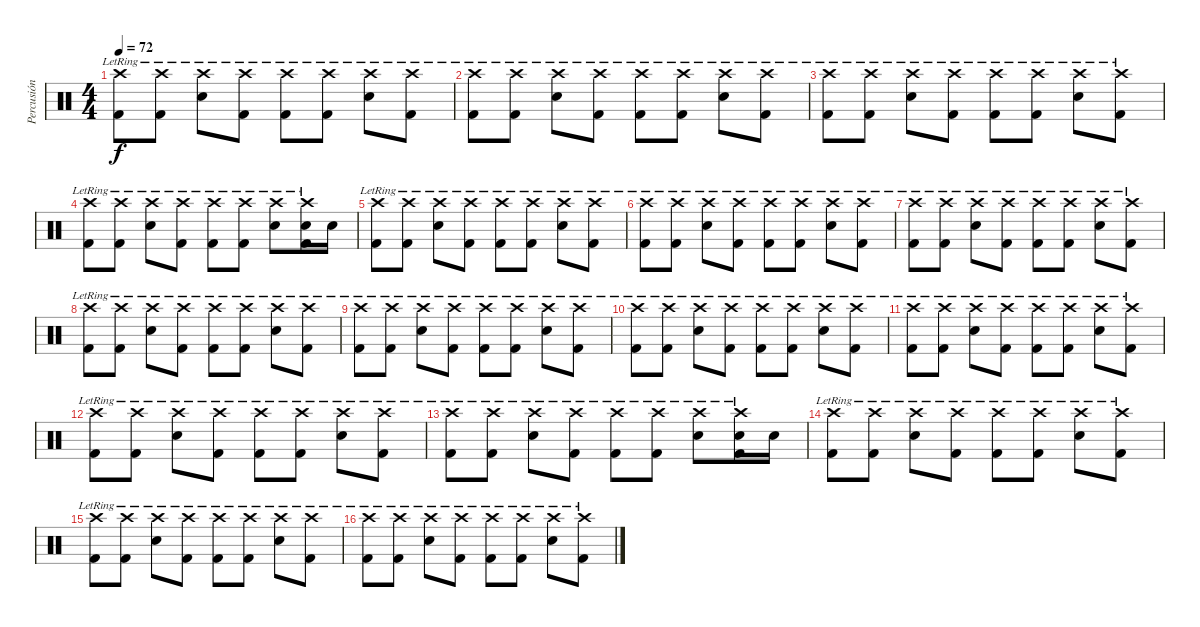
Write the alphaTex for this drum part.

\track ("Percusión" "Percusión") {instrument percussion}
\staff {score}
\articulation defaults
\ts (4 4)
\tempo 72
\clef neutral
\ks c
("Crash high (hit)"{lr} "Kick (hit) 2"{lr}).8{dy f} ("Crash high (hit)"{lr} "Kick (hit) 2"{lr}).8 ("Crash high (hit)"{lr} "Electric Snare (hit)"{lr}).8 ("Crash high (hit)"{lr} "Kick (hit) 2"{lr}).8 ("Crash high (hit)"{lr} "Kick (hit) 2"{lr}).8 ("Crash high (hit)"{lr} "Kick (hit) 2"{lr}).8 ("Crash high (hit)"{lr} "Electric Snare (hit)"{lr}).8 ("Crash high (hit)"{lr} "Kick (hit) 2"{lr}).8 |
("Crash high (hit)"{lr} "Kick (hit) 2"{lr}).8 ("Crash high (hit)"{lr} "Kick (hit) 2"{lr}).8 ("Crash high (hit)"{lr} "Electric Snare (hit)"{lr}).8 ("Crash high (hit)"{lr} "Kick (hit) 2"{lr}).8 ("Crash high (hit)"{lr} "Kick (hit) 2"{lr}).8 ("Crash high (hit)"{lr} "Kick (hit) 2"{lr}).8 ("Crash high (hit)"{lr} "Electric Snare (hit)"{lr}).8 ("Crash high (hit)"{lr} "Kick (hit) 2"{lr}).8 |
("Crash high (hit)"{lr} "Kick (hit) 2"{lr}).8 ("Crash high (hit)"{lr} "Kick (hit) 2"{lr}).8 ("Crash high (hit)"{lr} "Electric Snare (hit)"{lr}).8 ("Crash high (hit)"{lr} "Kick (hit) 2"{lr}).8 ("Crash high (hit)"{lr} "Kick (hit) 2"{lr}).8 ("Crash high (hit)"{lr} "Kick (hit) 2"{lr}).8 ("Crash high (hit)"{lr} "Electric Snare (hit)"{lr}).8 ("Crash high (hit)"{lr} "Kick (hit) 2"{lr}).8 |
("Crash high (hit)"{lr} "Kick (hit) 2"{lr}).8 ("Crash high (hit)"{lr} "Kick (hit) 2"{lr}).8 ("Crash high (hit)"{lr} "Electric Snare (hit)"{lr}).8 ("Crash high (hit)"{lr} "Kick (hit) 2"{lr}).8 ("Crash high (hit)"{lr} "Kick (hit) 2"{lr}).8 ("Crash high (hit)" "Kick (hit) 2"{lr}).8 ("Crash high (hit)"{lr} "Electric Snare (hit)"{lr}).8 ("Crash high (hit)"{lr} "Electric Snare (hit)" "Kick (hit) 2"{lr}).16 "Electric Snare (hit)".16 |
("Crash high (hit)"{lr} "Kick (hit) 2"{lr}).8 ("Crash high (hit)"{lr} "Kick (hit) 2"{lr}).8 ("Crash high (hit)"{lr} "Electric Snare (hit)"{lr}).8 ("Crash high (hit)"{lr} "Kick (hit) 2"{lr}).8 ("Crash high (hit)"{lr} "Kick (hit) 2"{lr}).8 ("Crash high (hit)"{lr} "Kick (hit) 2"{lr}).8 ("Crash high (hit)"{lr} "Electric Snare (hit)"{lr}).8 ("Crash high (hit)"{lr} "Kick (hit) 2"{lr}).8 |
("Crash high (hit)"{lr} "Kick (hit) 2"{lr}).8 ("Crash high (hit)"{lr} "Kick (hit) 2"{lr}).8 ("Crash high (hit)"{lr} "Electric Snare (hit)"{lr}).8 ("Crash high (hit)"{lr} "Kick (hit) 2"{lr}).8 ("Crash high (hit)"{lr} "Kick (hit) 2"{lr}).8 ("Crash high (hit)"{lr} "Kick (hit) 2"{lr}).8 ("Crash high (hit)"{lr} "Electric Snare (hit)"{lr}).8 ("Crash high (hit)"{lr} "Kick (hit) 2"{lr}).8 |
("Crash high (hit)"{lr} "Kick (hit) 2"{lr}).8 ("Crash high (hit)"{lr} "Kick (hit) 2"{lr}).8 ("Crash high (hit)"{lr} "Electric Snare (hit)"{lr}).8 ("Crash high (hit)"{lr} "Kick (hit) 2"{lr}).8 ("Crash high (hit)"{lr} "Kick (hit) 2"{lr}).8 ("Crash high (hit)"{lr} "Kick (hit) 2"{lr}).8 ("Crash high (hit)"{lr} "Electric Snare (hit)"{lr}).8 ("Crash high (hit)"{lr} "Kick (hit) 2"{lr}).8 |
("Crash high (hit)"{lr} "Kick (hit) 2"{lr}).8 ("Crash high (hit)"{lr} "Kick (hit) 2"{lr}).8 ("Crash high (hit)"{lr} "Electric Snare (hit)"{lr}).8 ("Crash high (hit)"{lr} "Kick (hit) 2"{lr}).8 ("Crash high (hit)"{lr} "Kick (hit) 2"{lr}).8 ("Crash high (hit)"{lr} "Kick (hit) 2"{lr}).8 ("Crash high (hit)"{lr} "Electric Snare (hit)"{lr}).8 ("Crash high (hit)"{lr} "Kick (hit) 2"{lr}).8 |
("Crash high (hit)"{lr} "Kick (hit) 2"{lr}).8 ("Crash high (hit)"{lr} "Kick (hit) 2"{lr}).8 ("Crash high (hit)"{lr} "Electric Snare (hit)"{lr}).8 ("Crash high (hit)"{lr} "Kick (hit) 2"{lr}).8 ("Crash high (hit)"{lr} "Kick (hit) 2"{lr}).8 ("Crash high (hit)"{lr} "Kick (hit) 2"{lr}).8 ("Crash high (hit)"{lr} "Electric Snare (hit)"{lr}).8 ("Crash high (hit)"{lr} "Kick (hit) 2"{lr}).8 |
("Crash high (hit)"{lr} "Kick (hit) 2"{lr}).8 ("Crash high (hit)"{lr} "Kick (hit) 2"{lr}).8 ("Crash high (hit)"{lr} "Electric Snare (hit)"{lr}).8 ("Crash high (hit)"{lr} "Kick (hit) 2"{lr}).8 ("Crash high (hit)"{lr} "Kick (hit) 2"{lr}).8 ("Crash high (hit)"{lr} "Kick (hit) 2"{lr}).8 ("Crash high (hit)"{lr} "Electric Snare (hit)"{lr}).8 ("Crash high (hit)"{lr} "Kick (hit) 2"{lr}).8 |
("Crash high (hit)"{lr} "Kick (hit) 2"{lr}).8 ("Crash high (hit)"{lr} "Kick (hit) 2"{lr}).8 ("Crash high (hit)"{lr} "Electric Snare (hit)"{lr}).8 ("Crash high (hit)"{lr} "Kick (hit) 2"{lr}).8 ("Crash high (hit)"{lr} "Kick (hit) 2"{lr}).8 ("Crash high (hit)"{lr} "Kick (hit) 2"{lr}).8 ("Crash high (hit)"{lr} "Electric Snare (hit)"{lr}).8 ("Crash high (hit)"{lr} "Kick (hit) 2"{lr}).8 |
("Crash high (hit)"{lr} "Kick (hit) 2"{lr}).8 ("Crash high (hit)"{lr} "Kick (hit) 2"{lr}).8 ("Crash high (hit)"{lr} "Electric Snare (hit)"{lr}).8 ("Crash high (hit)"{lr} "Kick (hit) 2"{lr}).8 ("Crash high (hit)"{lr} "Kick (hit) 2"{lr}).8 ("Crash high (hit)"{lr} "Kick (hit) 2"{lr}).8 ("Crash high (hit)"{lr} "Electric Snare (hit)"{lr}).8 ("Crash high (hit)"{lr} "Kick (hit) 2"{lr}).8 |
("Crash high (hit)"{lr} "Kick (hit) 2"{lr}).8 ("Crash high (hit)"{lr} "Kick (hit) 2"{lr}).8 ("Crash high (hit)"{lr} "Electric Snare (hit)"{lr}).8 ("Crash high (hit)"{lr} "Kick (hit) 2"{lr}).8 ("Crash high (hit)"{lr} "Kick (hit) 2"{lr}).8 ("Crash high (hit)" "Kick (hit) 2"{lr}).8 ("Crash high (hit)"{lr} "Electric Snare (hit)"{lr}).8 ("Crash high (hit)"{lr} "Electric Snare (hit)" "Kick (hit) 2"{lr}).16 "Electric Snare (hit)".16 |
("Crash high (hit)"{lr} "Kick (hit) 2"{lr}).8 ("Crash high (hit)"{lr} "Kick (hit) 2"{lr}).8 ("Crash high (hit)"{lr} "Electric Snare (hit)"{lr}).8 ("Crash high (hit)"{lr} "Kick (hit) 2"{lr}).8 ("Crash high (hit)"{lr} "Kick (hit) 2"{lr}).8 ("Crash high (hit)"{lr} "Kick (hit) 2"{lr}).8 ("Crash high (hit)"{lr} "Electric Snare (hit)"{lr}).8 ("Crash high (hit)"{lr} "Kick (hit) 2"{lr}).8 |
("Crash high (hit)"{lr} "Kick (hit) 2"{lr}).8 ("Crash high (hit)"{lr} "Kick (hit) 2"{lr}).8 ("Crash high (hit)"{lr} "Electric Snare (hit)"{lr}).8 ("Crash high (hit)"{lr} "Kick (hit) 2"{lr}).8 ("Crash high (hit)"{lr} "Kick (hit) 2"{lr}).8 ("Crash high (hit)"{lr} "Kick (hit) 2"{lr}).8 ("Crash high (hit)"{lr} "Electric Snare (hit)"{lr}).8 ("Crash high (hit)"{lr} "Kick (hit) 2"{lr}).8 |
("Crash high (hit)"{lr} "Kick (hit) 2"{lr}).8 ("Crash high (hit)"{lr} "Kick (hit) 2"{lr}).8 ("Crash high (hit)"{lr} "Electric Snare (hit)"{lr}).8 ("Crash high (hit)"{lr} "Kick (hit) 2"{lr}).8 ("Crash high (hit)"{lr} "Kick (hit) 2"{lr}).8 ("Crash high (hit)"{lr} "Kick (hit) 2"{lr}).8 ("Crash high (hit)"{lr} "Electric Snare (hit)"{lr}).8 ("Crash high (hit)"{lr} "Kick (hit) 2"{lr}).8
